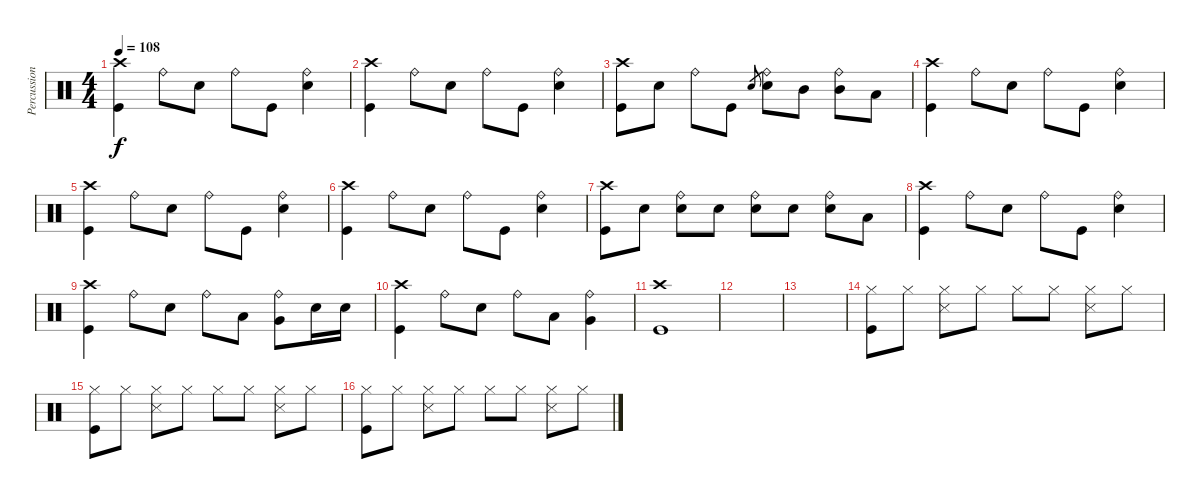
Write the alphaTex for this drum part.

\track ("Percussion" "Percussion") {instrument percussion}
\staff {score}
\articulation defaults
\ts (4 4)
\tempo 108
\clef neutral
\ks c
("Crash high (hit)" "Kick (hit)").4{dy f} "Ride (bell)".8 "Snare (hit) 2".8 "Ride (bell)".8 "Kick (hit)".8 ("Ride (bell)" "Snare (hit) 2").4 |
("Crash high (hit)" "Kick (hit)").4 "Ride (bell)".8 "Snare (hit) 2".8 "Ride (bell)".8 "Kick (hit)".8 ("Ride (bell)" "Snare (hit) 2").4 |
("Crash high (hit)" "Kick (hit)").8 "Snare (hit) 2".8 "Ride (bell)".8 "Kick (hit)".8 "Snare (hit) 2".8{gr} ("Ride (bell)" "Snare (hit) 2").8 "Mid Tom (hit)".8 ("Ride (bell)" "Mid Tom (hit)").8 "Low Tom (hit)".8 |
("Crash high (hit)" "Kick (hit)").4 "Ride (bell)".8 "Snare (hit) 2".8 "Ride (bell)".8 "Kick (hit)".8 ("Ride (bell)" "Snare (hit) 2").4 |
("Crash high (hit)" "Kick (hit)").4 "Ride (bell)".8 "Snare (hit) 2".8 "Ride (bell)".8 "Kick (hit)".8 ("Ride (bell)" "Snare (hit) 2").4 |
("Crash high (hit)" "Kick (hit)").4 "Ride (bell)".8 "Snare (hit) 2".8 "Ride (bell)".8 "Kick (hit)".8 ("Ride (bell)" "Snare (hit) 2").4 |
("Crash high (hit)" "Kick (hit)").8 "Snare (hit) 2".8 ("Ride (bell)" "Snare (hit) 2").8 "Snare (hit) 2".8 ("Ride (bell)" "Snare (hit) 2").8 "Snare (hit) 2".8 ("Ride (bell)" "Snare (hit) 2").8 "Low Tom (hit)".8 |
("Crash high (hit)" "Kick (hit)").4 "Ride (bell)".8 "Snare (hit) 2".8 "Ride (bell)".8 "Kick (hit)".8 ("Ride (bell)" "Snare (hit) 2").4 |
("Crash high (hit)" "Kick (hit)").4 "Ride (bell)".8 "Snare (hit) 2".8 "Ride (bell)".8 "Low Tom (hit)".8 ("Ride (bell)" "Very Low Tom (hit)").8 "Snare (hit) 2".16 "Snare (hit) 2".16 |
("Crash high (hit)" "Kick (hit)").4 "Ride (bell)".8 "Snare (hit) 2".8 "Ride (bell)".8 "Low Tom (hit)".8 ("Ride (bell)" "Very Low Tom (hit)").4 |
("Crash high (hit)" "Kick (hit)").1 |
|
|
("Hi-Hat (closed)" "Kick (hit)").8 "Hi-Hat (closed)".8 ("Hi-Hat (closed)" "Snare (side stick) 3").8 "Hi-Hat (closed)".8 "Hi-Hat (closed)".8 "Hi-Hat (closed)".8 ("Hi-Hat (closed)" "Snare (side stick) 3").8 "Hi-Hat (closed)".8 |
("Hi-Hat (closed)" "Kick (hit)").8 "Hi-Hat (closed)".8 ("Hi-Hat (closed)" "Snare (side stick) 3").8 "Hi-Hat (closed)".8 "Hi-Hat (closed)".8 "Hi-Hat (closed)".8 ("Hi-Hat (closed)" "Snare (side stick) 3").8 "Hi-Hat (closed)".8 |
("Hi-Hat (closed)" "Kick (hit)").8 "Hi-Hat (closed)".8 ("Hi-Hat (closed)" "Snare (side stick) 3").8 "Hi-Hat (closed)".8 "Hi-Hat (closed)".8 "Hi-Hat (closed)".8 ("Hi-Hat (closed)" "Snare (side stick) 3").8 "Hi-Hat (closed)".8
